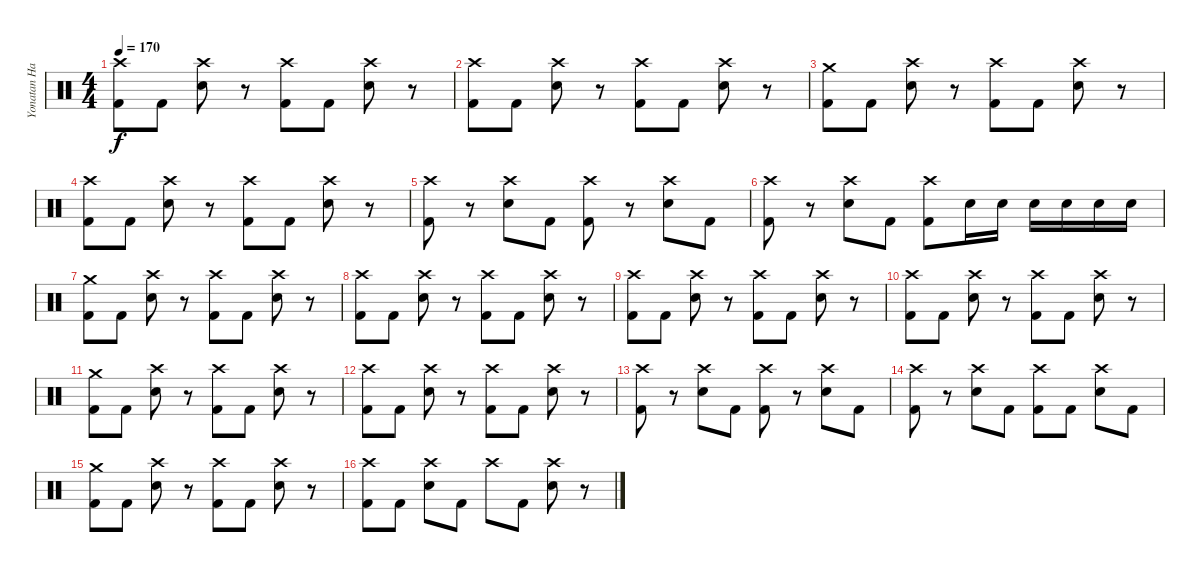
\track ("Yonatan Harpak (drums)" "Yonatan Ha") {instrument percussion}
\staff {score}
\articulation defaults
\ts (4 4)
\tempo 170
\clef neutral
\ks c
("Crash high (hit)" "Kick (hit) 2").8{dy f} "Kick (hit) 2".8 ("Crash high (hit)" "Snare (hit) 2").8 r.8 ("Crash high (hit)" "Kick (hit) 2").8 "Kick (hit) 2".8 ("Crash high (hit)" "Snare (hit) 2").8 r.8 |
("Crash high (hit)" "Kick (hit) 2").8 "Kick (hit) 2".8 ("Crash high (hit)" "Snare (hit) 2").8 r.8 ("Crash high (hit)" "Kick (hit) 2").8 "Kick (hit) 2".8 ("Crash high (hit)" "Snare (hit) 2").8 r.8 |
("Crash medium (hit)" "Kick (hit) 2").8 "Kick (hit) 2".8 ("Crash high (hit)" "Snare (hit) 2").8 r.8 ("Crash high (hit)" "Kick (hit) 2").8 "Kick (hit) 2".8 ("Crash high (hit)" "Snare (hit) 2").8 r.8 |
("Crash high (hit)" "Kick (hit) 2").8 "Kick (hit) 2".8 ("Crash high (hit)" "Snare (hit) 2").8 r.8 ("Crash high (hit)" "Kick (hit) 2").8 "Kick (hit) 2".8 ("Crash high (hit)" "Snare (hit) 2").8 r.8 |
("Crash high (hit)" "Kick (hit) 2").8 r.8 ("Crash high (hit)" "Snare (hit) 2").8 "Kick (hit) 2".8 ("Crash high (hit)" "Kick (hit) 2").8 r.8 ("Crash high (hit)" "Snare (hit) 2").8 "Kick (hit) 2".8 |
("Crash high (hit)" "Kick (hit) 2").8 r.8 ("Crash high (hit)" "Snare (hit) 2").8 "Kick (hit) 2".8 ("Crash high (hit)" "Kick (hit) 2").8 "Snare (hit) 2".16 "Snare (hit) 2".16 "Snare (hit) 2".16 "Snare (hit) 2".16 "Snare (hit) 2".16 "Snare (hit) 2".16 |
("Crash medium (hit)" "Kick (hit) 2").8 "Kick (hit) 2".8 ("Crash high (hit)" "Snare (hit) 2").8 r.8 ("Crash high (hit)" "Kick (hit) 2").8 "Kick (hit) 2".8 ("Crash high (hit)" "Snare (hit) 2").8 r.8 |
("Crash high (hit)" "Kick (hit) 2").8 "Kick (hit) 2".8 ("Crash high (hit)" "Snare (hit) 2").8 r.8 ("Crash high (hit)" "Kick (hit) 2").8 "Kick (hit) 2".8 ("Crash high (hit)" "Snare (hit) 2").8 r.8 |
("Crash high (hit)" "Kick (hit) 2").8 "Kick (hit) 2".8 ("Crash high (hit)" "Snare (hit) 2").8 r.8 ("Crash high (hit)" "Kick (hit) 2").8 "Kick (hit) 2".8 ("Crash high (hit)" "Snare (hit) 2").8 r.8 |
("Crash high (hit)" "Kick (hit) 2").8 "Kick (hit) 2".8 ("Crash high (hit)" "Snare (hit) 2").8 r.8 ("Crash high (hit)" "Kick (hit) 2").8 "Kick (hit) 2".8 ("Crash high (hit)" "Snare (hit) 2").8 r.8 |
("Crash medium (hit)" "Kick (hit) 2").8 "Kick (hit) 2".8 ("Crash high (hit)" "Snare (hit) 2").8 r.8 ("Crash high (hit)" "Kick (hit) 2").8 "Kick (hit) 2".8 ("Crash high (hit)" "Snare (hit) 2").8 r.8 |
("Crash high (hit)" "Kick (hit) 2").8 "Kick (hit) 2".8 ("Crash high (hit)" "Snare (hit) 2").8 r.8 ("Crash high (hit)" "Kick (hit) 2").8 "Kick (hit) 2".8 ("Crash high (hit)" "Snare (hit) 2").8 r.8 |
("Crash high (hit)" "Kick (hit) 2").8 r.8 ("Crash high (hit)" "Snare (hit) 2").8 "Kick (hit) 2".8 ("Crash high (hit)" "Kick (hit) 2").8 r.8 ("Crash high (hit)" "Snare (hit) 2").8 "Kick (hit) 2".8 |
("Crash high (hit)" "Kick (hit) 2").8 r.8 ("Crash high (hit)" "Snare (hit) 2").8 "Kick (hit) 2".8 ("Crash high (hit)" "Kick (hit) 2").8 "Kick (hit) 2".8 ("Crash high (hit)" "Snare (hit) 2").8 "Kick (hit) 2".8 |
("Crash medium (hit)" "Kick (hit) 2").8 "Kick (hit) 2".8 ("Crash high (hit)" "Snare (hit) 2").8 r.8 ("Crash high (hit)" "Kick (hit) 2").8 "Kick (hit) 2".8 ("Crash high (hit)" "Snare (hit) 2").8 r.8 |
("Crash high (hit)" "Kick (hit) 2").8 "Kick (hit) 2".8 ("Crash high (hit)" "Snare (hit) 2").8 "Kick (hit) 2".8 "Crash high (hit)".8 "Kick (hit) 2".8 ("Crash high (hit)" "Snare (hit) 2").8 r.8
